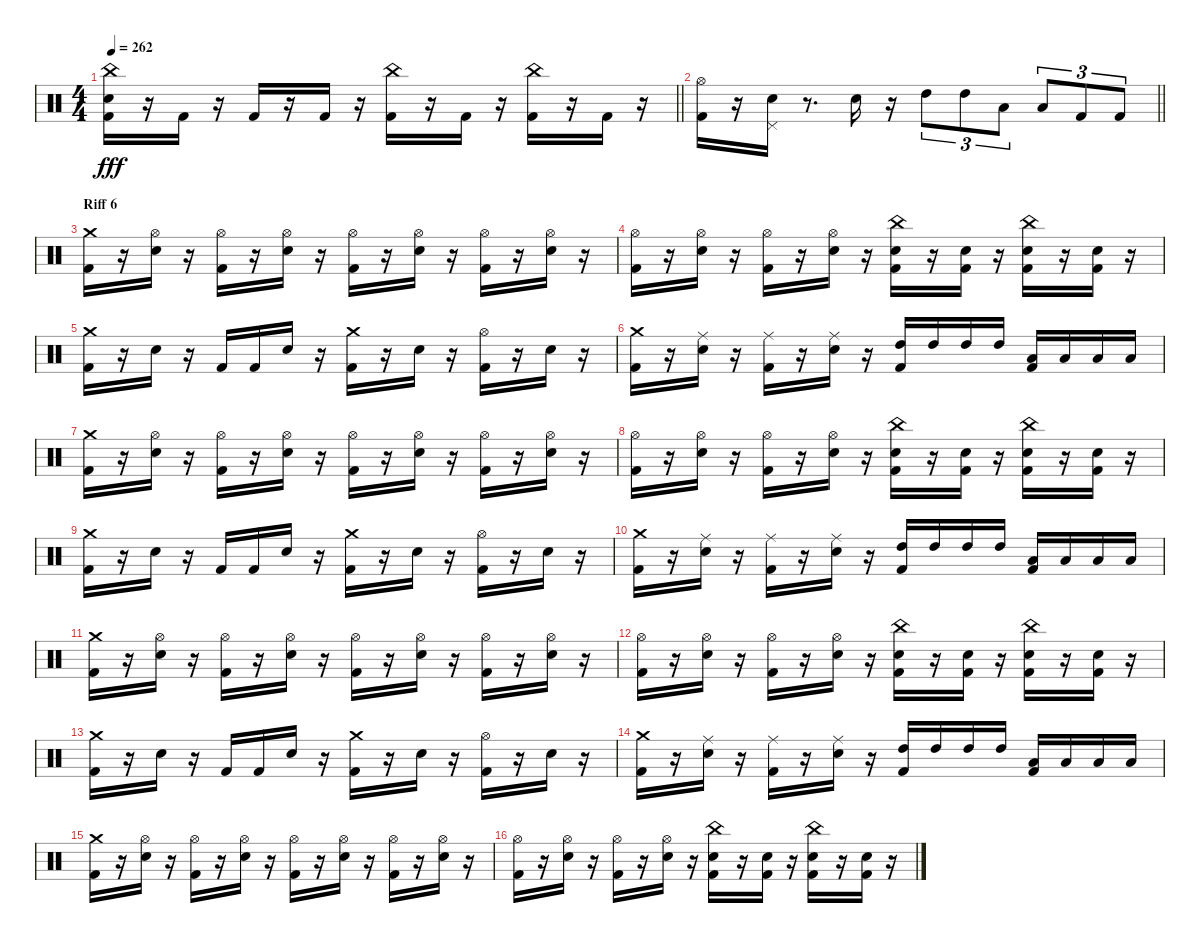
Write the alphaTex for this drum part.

\track "" {instrument percussion}
\staff {score}
\articulation defaults
\ts (4 4)
\tempo 262
\clef neutral
\barLineRight lightlight
\ks c
("Kick (hit) 2" "Snare (hit) 2" "China (hit)").16{dy fff} r.16 "Kick (hit) 2".16 r.16 "Kick (hit) 2".16 r.16 "Kick (hit) 2".16 r.16 ("Kick (hit) 2" "China (hit)").16 r.16 "Kick (hit) 2".16 r.16 ("Kick (hit) 2" "China (hit)").16 r.16 "Kick (hit) 2".16 r.16 |
\section ("" "")
\barLineRight lightlight
("Kick (hit) 2" "Hi-Hat (open)").16 r.16 ("Snare (hit) 2" "Pedal Hi-Hat (hit)").16 r.8{d} "Snare (hit) 2".16 r.16 "High Tom (hit)".8{tu (3 2)} "High Tom (hit)".8{tu (3 2)} "Low Tom (hit)".8{tu (3 2)} "Low Tom (hit)".8{tu (3 2)} "Kick (hit) 2".8{tu (3 2)} "Kick (hit) 2".8{tu (3 2)} |
\section ("" "Riff 6")
("Kick (hit) 2" "Crash medium (hit)").16 r.16 ("Snare (hit) 2" "Hi-Hat (open)").16 r.16 ("Kick (hit) 2" "Hi-Hat (open)").16 r.16 ("Snare (hit) 2" "Hi-Hat (open)").16 r.16 ("Kick (hit) 2" "Hi-Hat (open)").16 r.16 ("Snare (hit) 2" "Hi-Hat (open)").16 r.16 ("Kick (hit) 2" "Hi-Hat (open)").16 r.16 ("Snare (hit) 2" "Hi-Hat (open)").16 r.16 |
("Kick (hit) 2" "Hi-Hat (open)").16 r.16 ("Snare (hit) 2" "Hi-Hat (open)").16 r.16 ("Kick (hit) 2" "Hi-Hat (open)").16 r.16 ("Snare (hit) 2" "Hi-Hat (open)").16 r.16 ("Kick (hit) 2" "Snare (hit) 2" "China (hit)").16 r.16 ("Kick (hit) 2" "Snare (hit) 2").16 r.16 ("Kick (hit) 2" "Snare (hit) 2" "China (hit)").16 r.16 ("Kick (hit) 2" "Snare (hit) 2").16 r.16 |
("Kick (hit) 2" "Crash medium (hit)").16 r.16 "Snare (hit) 2".16 r.16 "Kick (hit) 2".16 "Kick (hit) 2".16 "Snare (hit) 2".16 r.16 ("Kick (hit) 2" "Crash medium (hit)").16 r.16 "Snare (hit) 2".16 r.16 ("Kick (hit) 2" "Hi-Hat (open)").16 r.16 "Snare (hit) 2".16 r.16 |
("Kick (hit) 2" "Crash medium (hit)").16 r.16 ("Snare (hit) 2" "Ride (middle)").16 r.16 ("Kick (hit) 2" "Ride (middle)").16 r.16 ("Snare (hit) 2" "Ride (middle)").16 r.16 ("Kick (hit) 2" "High Tom (hit)").16 "High Tom (hit)".16 "High Tom (hit)".16 "High Tom (hit)".16 ("Kick (hit) 2" "Low Tom (hit)").16 "Low Tom (hit)".16 "Low Tom (hit)".16 "Low Tom (hit)".16 |
("Kick (hit) 2" "Crash medium (hit)").16 r.16 ("Snare (hit) 2" "Hi-Hat (open)").16 r.16 ("Kick (hit) 2" "Hi-Hat (open)").16 r.16 ("Snare (hit) 2" "Hi-Hat (open)").16 r.16 ("Kick (hit) 2" "Hi-Hat (open)").16 r.16 ("Snare (hit) 2" "Hi-Hat (open)").16 r.16 ("Kick (hit) 2" "Hi-Hat (open)").16 r.16 ("Snare (hit) 2" "Hi-Hat (open)").16 r.16 |
("Kick (hit) 2" "Hi-Hat (open)").16 r.16 ("Snare (hit) 2" "Hi-Hat (open)").16 r.16 ("Kick (hit) 2" "Hi-Hat (open)").16 r.16 ("Snare (hit) 2" "Hi-Hat (open)").16 r.16 ("Kick (hit) 2" "Snare (hit) 2" "China (hit)").16 r.16 ("Kick (hit) 2" "Snare (hit) 2").16 r.16 ("Kick (hit) 2" "Snare (hit) 2" "China (hit)").16 r.16 ("Kick (hit) 2" "Snare (hit) 2").16 r.16 |
("Kick (hit) 2" "Crash medium (hit)").16 r.16 "Snare (hit) 2".16 r.16 "Kick (hit) 2".16 "Kick (hit) 2".16 "Snare (hit) 2".16 r.16 ("Kick (hit) 2" "Crash medium (hit)").16 r.16 "Snare (hit) 2".16 r.16 ("Kick (hit) 2" "Hi-Hat (open)").16 r.16 "Snare (hit) 2".16 r.16 |
("Kick (hit) 2" "Crash medium (hit)").16 r.16 ("Snare (hit) 2" "Ride (middle)").16 r.16 ("Kick (hit) 2" "Ride (middle)").16 r.16 ("Snare (hit) 2" "Ride (middle)").16 r.16 ("Kick (hit) 2" "High Tom (hit)").16 "High Tom (hit)".16 "High Tom (hit)".16 "High Tom (hit)".16 ("Kick (hit) 2" "Low Tom (hit)").16 "Low Tom (hit)".16 "Low Tom (hit)".16 "Low Tom (hit)".16 |
("Kick (hit) 2" "Crash medium (hit)").16 r.16 ("Snare (hit) 2" "Hi-Hat (open)").16 r.16 ("Kick (hit) 2" "Hi-Hat (open)").16 r.16 ("Snare (hit) 2" "Hi-Hat (open)").16 r.16 ("Kick (hit) 2" "Hi-Hat (open)").16 r.16 ("Snare (hit) 2" "Hi-Hat (open)").16 r.16 ("Kick (hit) 2" "Hi-Hat (open)").16 r.16 ("Snare (hit) 2" "Hi-Hat (open)").16 r.16 |
("Kick (hit) 2" "Hi-Hat (open)").16 r.16 ("Snare (hit) 2" "Hi-Hat (open)").16 r.16 ("Kick (hit) 2" "Hi-Hat (open)").16 r.16 ("Snare (hit) 2" "Hi-Hat (open)").16 r.16 ("Kick (hit) 2" "Snare (hit) 2" "China (hit)").16 r.16 ("Kick (hit) 2" "Snare (hit) 2").16 r.16 ("Kick (hit) 2" "Snare (hit) 2" "China (hit)").16 r.16 ("Kick (hit) 2" "Snare (hit) 2").16 r.16 |
("Kick (hit) 2" "Crash medium (hit)").16 r.16 "Snare (hit) 2".16 r.16 "Kick (hit) 2".16 "Kick (hit) 2".16 "Snare (hit) 2".16 r.16 ("Kick (hit) 2" "Crash medium (hit)").16 r.16 "Snare (hit) 2".16 r.16 ("Kick (hit) 2" "Hi-Hat (open)").16 r.16 "Snare (hit) 2".16 r.16 |
("Kick (hit) 2" "Crash medium (hit)").16 r.16 ("Snare (hit) 2" "Ride (middle)").16 r.16 ("Kick (hit) 2" "Ride (middle)").16 r.16 ("Snare (hit) 2" "Ride (middle)").16 r.16 ("Kick (hit) 2" "High Tom (hit)").16 "High Tom (hit)".16 "High Tom (hit)".16 "High Tom (hit)".16 ("Kick (hit) 2" "Low Tom (hit)").16 "Low Tom (hit)".16 "Low Tom (hit)".16 "Low Tom (hit)".16 |
("Kick (hit) 2" "Crash medium (hit)").16 r.16 ("Snare (hit) 2" "Hi-Hat (open)").16 r.16 ("Kick (hit) 2" "Hi-Hat (open)").16 r.16 ("Snare (hit) 2" "Hi-Hat (open)").16 r.16 ("Kick (hit) 2" "Hi-Hat (open)").16 r.16 ("Snare (hit) 2" "Hi-Hat (open)").16 r.16 ("Kick (hit) 2" "Hi-Hat (open)").16 r.16 ("Snare (hit) 2" "Hi-Hat (open)").16 r.16 |
("Kick (hit) 2" "Hi-Hat (open)").16 r.16 ("Snare (hit) 2" "Hi-Hat (open)").16 r.16 ("Kick (hit) 2" "Hi-Hat (open)").16 r.16 ("Snare (hit) 2" "Hi-Hat (open)").16 r.16 ("Kick (hit) 2" "Snare (hit) 2" "China (hit)").16 r.16 ("Kick (hit) 2" "Snare (hit) 2").16 r.16 ("Kick (hit) 2" "Snare (hit) 2" "China (hit)").16 r.16 ("Kick (hit) 2" "Snare (hit) 2").16 r.16
